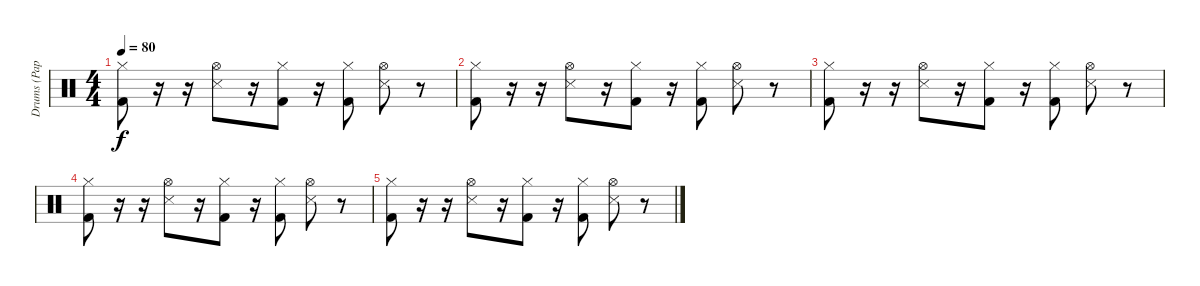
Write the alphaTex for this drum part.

\track ("Drums (Pappas)" "Drums (Pap") {instrument percussion}
\staff {score}
\articulation defaults
\ts (4 4)
\tempo 80
\clef neutral
\ks c
("Hi-Hat (closed)" "Kick (hit) 2").8{dy f} r.16 r.16 ("Hi-Hat (open)" "Snare (side stick) 3").8 r.16 ("Hi-Hat (closed)" "Kick (hit) 2").8 r.16 ("Hi-Hat (closed)" "Kick (hit) 2").8 ("Hi-Hat (open)" "Snare (side stick) 3").8 r.8 |
("Hi-Hat (closed)" "Kick (hit) 2").8 r.16 r.16 ("Hi-Hat (open)" "Snare (side stick) 3").8 r.16 ("Hi-Hat (closed)" "Kick (hit) 2").8 r.16 ("Hi-Hat (closed)" "Kick (hit) 2").8 ("Hi-Hat (open)" "Snare (side stick) 3").8 r.8 |
("Hi-Hat (closed)" "Kick (hit) 2").8 r.16 r.16 ("Hi-Hat (open)" "Snare (side stick) 3").8 r.16 ("Hi-Hat (closed)" "Kick (hit) 2").8 r.16 ("Hi-Hat (closed)" "Kick (hit) 2").8 ("Hi-Hat (open)" "Snare (side stick) 3").8 r.8 |
("Hi-Hat (closed)" "Kick (hit) 2").8 r.16 r.16 ("Hi-Hat (open)" "Snare (side stick) 3").8 r.16 ("Hi-Hat (closed)" "Kick (hit) 2").8 r.16 ("Hi-Hat (closed)" "Kick (hit) 2").8 ("Hi-Hat (open)" "Snare (side stick) 3").8 r.8 |
("Hi-Hat (closed)" "Kick (hit) 2").8 r.16 r.16 ("Hi-Hat (open)" "Snare (side stick) 3").8 r.16 ("Hi-Hat (closed)" "Kick (hit) 2").8 r.16 ("Hi-Hat (closed)" "Kick (hit) 2").8 ("Hi-Hat (open)" "Snare (side stick) 3").8 r.8
